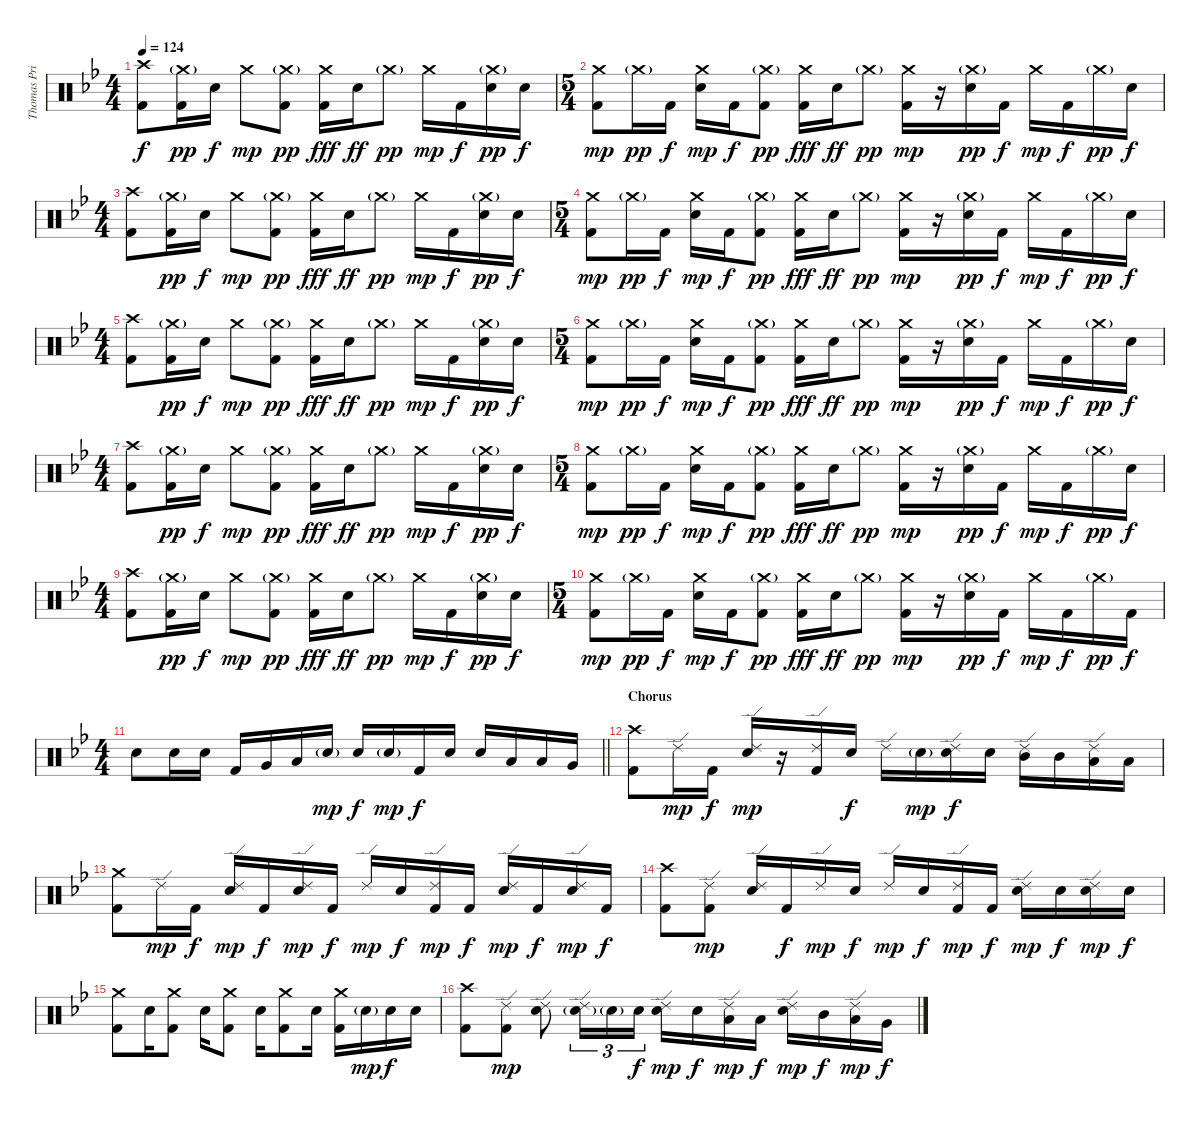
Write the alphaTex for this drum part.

\track ("Thomas Pridgen" "Thomas Pri") {instrument percussion}
\staff {score}
\articulation defaults
\ts (4 4)
\tempo 124
\clef neutral
\ks gminor
("Crash high (hit)" "Kick (hit) 2").8{dy f} ("Crash medium (hit)"{g} "Kick (hit) 2").16{dy pp} "Electric Snare (hit)".16{dy f} "Crash medium (hit)".8{dy mp} ("Crash medium (hit)"{g} "Kick (hit) 2").8{dy pp} ("Crash medium (hit)" "Kick (hit) 2").16{dy fff} "Electric Snare (hit)".16{dy ff} "Crash medium (hit)"{g}.8{dy pp} "Crash medium (hit)".16{dy mp} "Kick (hit) 2".16{dy f} ("Crash medium (hit)"{g} "Electric Snare (hit)").16{dy pp} "Electric Snare (hit)".16{dy f} |
\ts (5 4)
("Crash medium (hit)" "Kick (hit) 2").8{dy mp} "Crash medium (hit)"{g}.16{dy pp} "Kick (hit) 2".16{dy f} ("Crash medium (hit)" "Electric Snare (hit)").16{dy mp} "Kick (hit) 2".16{dy f} ("Crash medium (hit)"{g} "Kick (hit) 2").8{dy pp} ("Crash medium (hit)" "Kick (hit) 2").16{dy fff} "Electric Snare (hit)".16{dy ff} "Crash medium (hit)"{g}.8{dy pp} ("Crash medium (hit)" "Kick (hit) 2").16{dy mp} r.16 ("Crash medium (hit)"{g} "Electric Snare (hit)").16{dy pp} "Kick (hit) 2".16{dy f} "Crash medium (hit)".16{dy mp} "Kick (hit) 2".16{dy f} "Crash medium (hit)"{g}.16{dy pp} "Electric Snare (hit)".16{dy f} |
\ts (4 4)
("Crash high (hit)" "Kick (hit) 2").8 ("Crash medium (hit)"{g} "Kick (hit) 2").16{dy pp} "Electric Snare (hit)".16{dy f} "Crash medium (hit)".8{dy mp} ("Crash medium (hit)"{g} "Kick (hit) 2").8{dy pp} ("Crash medium (hit)" "Kick (hit) 2").16{dy fff} "Electric Snare (hit)".16{dy ff} "Crash medium (hit)"{g}.8{dy pp} "Crash medium (hit)".16{dy mp} "Kick (hit) 2".16{dy f} ("Crash medium (hit)"{g} "Electric Snare (hit)").16{dy pp} "Electric Snare (hit)".16{dy f} |
\ts (5 4)
("Crash medium (hit)" "Kick (hit) 2").8{dy mp} "Crash medium (hit)"{g}.16{dy pp} "Kick (hit) 2".16{dy f} ("Crash medium (hit)" "Electric Snare (hit)").16{dy mp} "Kick (hit) 2".16{dy f} ("Crash medium (hit)"{g} "Kick (hit) 2").8{dy pp} ("Crash medium (hit)" "Kick (hit) 2").16{dy fff} "Electric Snare (hit)".16{dy ff} "Crash medium (hit)"{g}.8{dy pp} ("Crash medium (hit)" "Kick (hit) 2").16{dy mp} r.16 ("Crash medium (hit)"{g} "Electric Snare (hit)").16{dy pp} "Kick (hit) 2".16{dy f} "Crash medium (hit)".16{dy mp} "Kick (hit) 2".16{dy f} "Crash medium (hit)"{g}.16{dy pp} "Electric Snare (hit)".16{dy f} |
\ts (4 4)
("Crash high (hit)" "Kick (hit) 2").8 ("Crash medium (hit)"{g} "Kick (hit) 2").16{dy pp} "Electric Snare (hit)".16{dy f} "Crash medium (hit)".8{dy mp} ("Crash medium (hit)"{g} "Kick (hit) 2").8{dy pp} ("Crash medium (hit)" "Kick (hit) 2").16{dy fff} "Electric Snare (hit)".16{dy ff} "Crash medium (hit)"{g}.8{dy pp} "Crash medium (hit)".16{dy mp} "Kick (hit) 2".16{dy f} ("Crash medium (hit)"{g} "Electric Snare (hit)").16{dy pp} "Electric Snare (hit)".16{dy f} |
\ts (5 4)
("Crash medium (hit)" "Kick (hit) 2").8{dy mp} "Crash medium (hit)"{g}.16{dy pp} "Kick (hit) 2".16{dy f} ("Crash medium (hit)" "Electric Snare (hit)").16{dy mp} "Kick (hit) 2".16{dy f} ("Crash medium (hit)"{g} "Kick (hit) 2").8{dy pp} ("Crash medium (hit)" "Kick (hit) 2").16{dy fff} "Electric Snare (hit)".16{dy ff} "Crash medium (hit)"{g}.8{dy pp} ("Crash medium (hit)" "Kick (hit) 2").16{dy mp} r.16 ("Crash medium (hit)"{g} "Electric Snare (hit)").16{dy pp} "Kick (hit) 2".16{dy f} "Crash medium (hit)".16{dy mp} "Kick (hit) 2".16{dy f} "Crash medium (hit)"{g}.16{dy pp} "Electric Snare (hit)".16{dy f} |
\ts (4 4)
("Crash high (hit)" "Kick (hit) 2").8 ("Crash medium (hit)"{g} "Kick (hit) 2").16{dy pp} "Electric Snare (hit)".16{dy f} "Crash medium (hit)".8{dy mp} ("Crash medium (hit)"{g} "Kick (hit) 2").8{dy pp} ("Crash medium (hit)" "Kick (hit) 2").16{dy fff} "Electric Snare (hit)".16{dy ff} "Crash medium (hit)"{g}.8{dy pp} "Crash medium (hit)".16{dy mp} "Kick (hit) 2".16{dy f} ("Crash medium (hit)"{g} "Electric Snare (hit)").16{dy pp} "Electric Snare (hit)".16{dy f} |
\ts (5 4)
("Crash medium (hit)" "Kick (hit) 2").8{dy mp} "Crash medium (hit)"{g}.16{dy pp} "Kick (hit) 2".16{dy f} ("Crash medium (hit)" "Electric Snare (hit)").16{dy mp} "Kick (hit) 2".16{dy f} ("Crash medium (hit)"{g} "Kick (hit) 2").8{dy pp} ("Crash medium (hit)" "Kick (hit) 2").16{dy fff} "Electric Snare (hit)".16{dy ff} "Crash medium (hit)"{g}.8{dy pp} ("Crash medium (hit)" "Kick (hit) 2").16{dy mp} r.16 ("Crash medium (hit)"{g} "Electric Snare (hit)").16{dy pp} "Kick (hit) 2".16{dy f} "Crash medium (hit)".16{dy mp} "Kick (hit) 2".16{dy f} "Crash medium (hit)"{g}.16{dy pp} "Electric Snare (hit)".16{dy f} |
\ts (4 4)
("Crash high (hit)" "Kick (hit) 2").8 ("Crash medium (hit)"{g} "Kick (hit) 2").16{dy pp} "Electric Snare (hit)".16{dy f} "Crash medium (hit)".8{dy mp} ("Crash medium (hit)"{g} "Kick (hit) 2").8{dy pp} ("Crash medium (hit)" "Kick (hit) 2").16{dy fff} "Electric Snare (hit)".16{dy ff} "Crash medium (hit)"{g}.8{dy pp} "Crash medium (hit)".16{dy mp} "Kick (hit) 2".16{dy f} ("Crash medium (hit)"{g} "Electric Snare (hit)").16{dy pp} "Electric Snare (hit)".16{dy f} |
\ts (5 4)
("Crash medium (hit)" "Kick (hit) 2").8{dy mp} "Crash medium (hit)"{g}.16{dy pp} "Kick (hit) 2".16{dy f} ("Crash medium (hit)" "Electric Snare (hit)").16{dy mp} "Kick (hit) 2".16{dy f} ("Crash medium (hit)"{g} "Kick (hit) 2").8{dy pp} ("Crash medium (hit)" "Kick (hit) 2").16{dy fff} "Electric Snare (hit)".16{dy ff} "Crash medium (hit)"{g}.8{dy pp} ("Crash medium (hit)" "Kick (hit) 2").16{dy mp} r.16 ("Crash medium (hit)"{g} "Electric Snare (hit)").16{dy pp} "Kick (hit) 2".16{dy f} "Crash medium (hit)".16{dy mp} "Kick (hit) 2".16{dy f} "Crash medium (hit)"{g}.16{dy pp} "Kick (hit) 2".16{dy f} |
\ts (4 4)
\barLineRight lightlight "Electric Snare (hit)".8 "Electric Snare (hit)".16 "Electric Snare (hit)".16 "Kick (hit) 2".16 "Very Low Tom (hit)".16 "Low Tom (hit)".16 "Electric Snare (hit)"{g}.16{dy mp} "Electric Snare (hit)".16{dy f} "Electric Snare (hit)"{g}.16{dy mp} "Kick (hit) 2".16{dy f} "Electric Snare (hit)".16 "Electric Snare (hit)".16 "Low Tom (hit)".16 "Low Tom (hit)".16 "Very Low Tom (hit)".16
|
\section ("" "Chorus")
("Crash high (hit)" "Kick (hit) 2").8 "Ride (edge) 2".16{dy mp} "Kick (hit) 2".16{dy f} ("Ride (edge) 2" "Electric Snare (hit)").16{dy mp} r.16 ("Ride (edge) 2" "Kick (hit) 2").16 "Electric Snare (hit)".16{dy f} "Ride (edge) 2".16 "Electric Snare (hit)"{g}.16{dy mp} ("Ride (edge) 2" "Electric Snare (hit)").16{dy f} "Electric Snare (hit)".16 ("Ride (edge) 2" "Mid Tom (hit)").16 "Mid Tom (hit)".16 ("Ride (edge) 2" "Low Tom (hit)").16 "Low Tom (hit)".16 |
("Crash medium (hit)" "Kick (hit) 2").8 "Ride (edge) 2".16{dy mp} "Kick (hit) 2".16{dy f} ("Ride (edge) 2" "Electric Snare (hit)").16{dy mp} "Kick (hit) 2".16{dy f} ("Ride (edge) 2" "Electric Snare (hit)").16{dy mp} "Kick (hit) 2".16{dy f} "Ride (edge) 2".16{dy mp} "Electric Snare (hit)".16{dy f} ("Ride (edge) 2" "Kick (hit) 2").16{dy mp} "Kick (hit) 2".16{dy f} ("Ride (edge) 2" "Electric Snare (hit)").16{dy mp} "Kick (hit) 2".16{dy f} ("Ride (edge) 2" "Electric Snare (hit)").16{dy mp} "Kick (hit) 2".16{dy f} |
("Crash high (hit)" "Kick (hit) 2").8 ("Ride (edge) 2" "Kick (hit) 2").8{dy mp} ("Ride (edge) 2" "Electric Snare (hit)").16 "Kick (hit) 2".16{dy f} "Ride (edge) 2".16{dy mp} "Electric Snare (hit)".16{dy f} "Ride (edge) 2".16{dy mp} "Electric Snare (hit)".16{dy f} ("Ride (edge) 2" "Kick (hit) 2").16{dy mp} "Kick (hit) 2".16{dy f} ("Ride (edge) 2" "Electric Snare (hit)").16{dy mp} "Electric Snare (hit)".16{dy f} ("Ride (edge) 2" "Electric Snare (hit)").16{dy mp} "Electric Snare (hit)".16{dy f} |
("Crash medium (hit)" "Kick (hit) 2").8 "Electric Snare (hit)".16 ("Crash medium (hit)" "Kick (hit) 2").8 "Electric Snare (hit)".16 ("Crash medium (hit)" "Kick (hit) 2").8 "Electric Snare (hit)".16 ("Crash medium (hit)" "Kick (hit) 2").8 "Electric Snare (hit)".16 ("Crash medium (hit)" "Kick (hit) 2").16 "Electric Snare (hit)"{g}.16{dy mp} "Electric Snare (hit)".16{dy f} "Electric Snare (hit)".16 |
("Crash high (hit)" "Kick (hit) 2").8 ("Ride (edge) 2" "Kick (hit) 2").8{dy mp} ("Ride (edge) 2" "Electric Snare (hit)").8 ("Ride (edge) 2" "Electric Snare (hit)"{g}).16{tu (3 2)} "Electric Snare (hit)"{g}.16{tu (3 2)} "Electric Snare (hit)".16{tu (3 2) dy f} ("Ride (edge) 2" "Electric Snare (hit)").16{dy mp} "Electric Snare (hit)".16{dy f} ("Ride (edge) 2" "Low Tom (hit)").16{dy mp} "Low Tom (hit)".16{dy f} ("Ride (edge) 2" "Electric Snare (hit)").16{dy mp} "Mid Tom (hit)".16{dy f} ("Ride (edge) 2" "Low Tom (hit)").16{dy mp} "Very Low Tom (hit)".16{dy f}
